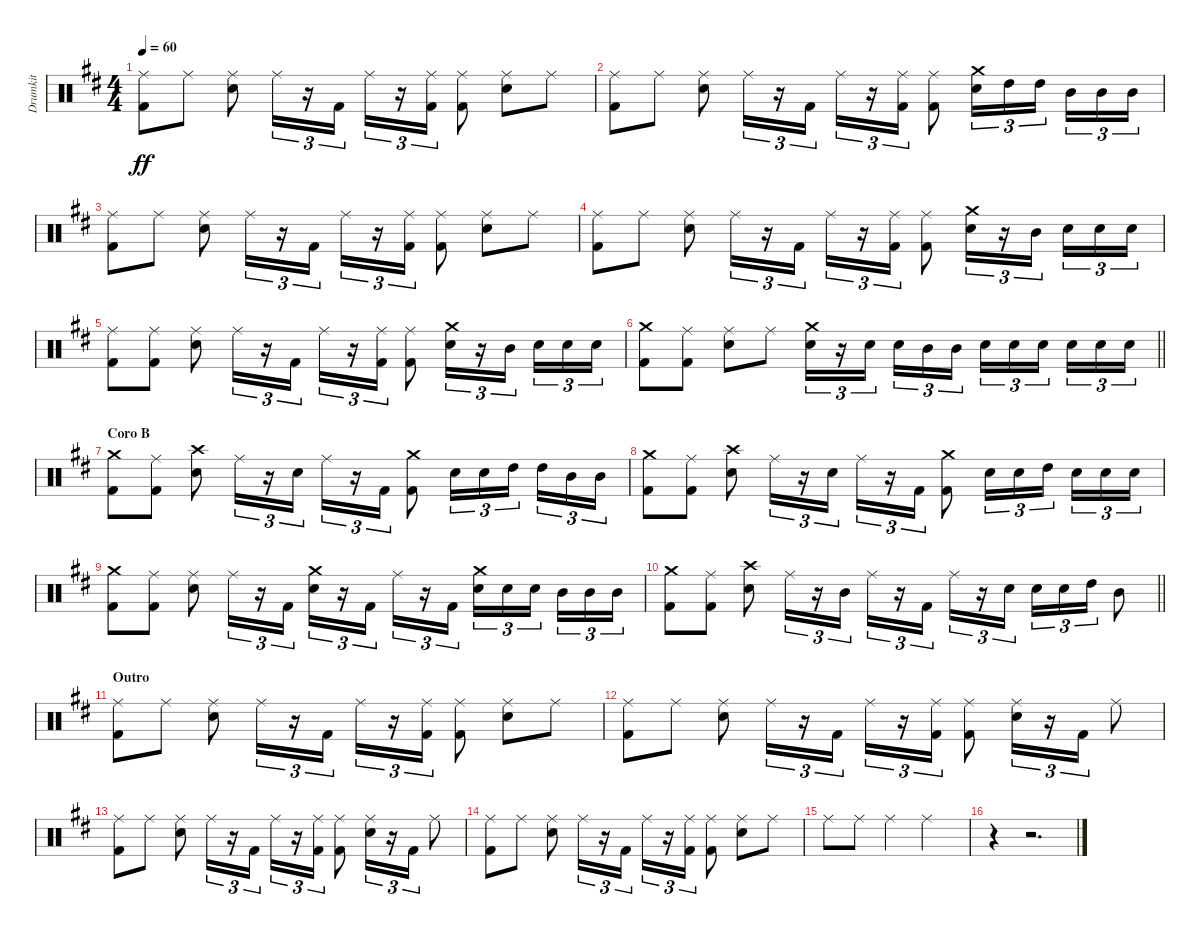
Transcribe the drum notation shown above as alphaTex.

\track ("Drumkit" "Drumkit") {instrument percussion}
\staff {score}
\articulation defaults
\ts (4 4)
\tempo 60
\clef neutral
\ks d
("Kick (hit) 2" "Ride (middle)").8{dy ff} "Ride (middle)".8 ("Snare (hit) 2" "Ride (middle)").8 "Ride (middle)".16{tu (3 2)} r.16{tu (3 2)} "Kick (hit) 2".16{tu (3 2)} "Ride (middle)".16{tu (3 2)} r.16{tu (3 2)} ("Kick (hit) 2" "Ride (middle)").16{tu (3 2)} ("Kick (hit) 2" "Ride (middle)").8 ("Snare (hit) 2" "Ride (middle)").8 "Ride (middle)".8 |
("Kick (hit) 2" "Ride (middle)").8 "Ride (middle)".8 ("Snare (hit) 2" "Ride (middle)").8 "Ride (middle)".16{tu (3 2)} r.16{tu (3 2)} "Kick (hit) 2".16{tu (3 2)} "Ride (middle)".16{tu (3 2)} r.16{tu (3 2)} ("Kick (hit) 2" "Ride (middle)").16{tu (3 2)} ("Kick (hit) 2" "Ride (middle)").8 ("Snare (hit) 2" "Crash medium (hit)").16{tu (3 2)} "High Tom (hit)".16{tu (3 2)} "High Tom (hit)".16{tu (3 2)} "Mid Tom (hit)".16{tu (3 2)} "Mid Tom (hit)".16{tu (3 2)} "Mid Tom (hit)".16{tu (3 2)} |
("Kick (hit) 2" "Ride (middle)").8 "Ride (middle)".8 ("Snare (hit) 2" "Ride (middle)").8 "Ride (middle)".16{tu (3 2)} r.16{tu (3 2)} "Kick (hit) 2".16{tu (3 2)} "Ride (middle)".16{tu (3 2)} r.16{tu (3 2)} ("Kick (hit) 2" "Ride (middle)").16{tu (3 2)} ("Kick (hit) 2" "Ride (middle)").8 ("Snare (hit) 2" "Ride (middle)").8 "Ride (middle)".8 |
("Kick (hit) 2" "Ride (middle)").8 "Ride (middle)".8 ("Snare (hit) 2" "Ride (middle)").8 "Ride (middle)".16{tu (3 2)} r.16{tu (3 2)} "Kick (hit) 2".16{tu (3 2)} "Ride (middle)".16{tu (3 2)} r.16{tu (3 2)} ("Kick (hit) 2" "Ride (middle)").16{tu (3 2)} ("Kick (hit) 2" "Ride (middle)").8 ("Snare (hit) 2" "Crash medium (hit)").16{tu (3 2)} r.16{tu (3 2)} "Mid Tom (hit)".16{tu (3 2)} "Snare (hit) 2".16{tu (3 2)} "Snare (hit) 2".16{tu (3 2)} "Snare (hit) 2".16{tu (3 2)} |
("Kick (hit) 2" "Ride (middle)").8 ("Kick (hit) 2" "Ride (middle)").8 ("Snare (hit) 2" "Ride (middle)").8 "Ride (middle)".16{tu (3 2)} r.16{tu (3 2)} "Kick (hit) 2".16{tu (3 2)} "Ride (middle)".16{tu (3 2)} r.16{tu (3 2)} ("Kick (hit) 2" "Ride (middle)").16{tu (3 2)} ("Kick (hit) 2" "Ride (middle)").8 ("Snare (hit) 2" "Crash medium (hit)").16{tu (3 2)} r.16{tu (3 2)} "Mid Tom (hit)".16{tu (3 2)} "Snare (hit) 2".16{tu (3 2)} "Snare (hit) 2".16{tu (3 2)} "Snare (hit) 2".16{tu (3 2)} |
\barLineRight lightlight
("Kick (hit) 2" "Crash medium (hit)").8 ("Kick (hit) 2" "Ride (middle)").8 ("Snare (hit) 2" "Ride (middle)").8 "Ride (middle)".8 ("Snare (hit) 2" "Crash medium (hit)").16{tu (3 2)} r.16{tu (3 2)} "Snare (hit) 2".16{tu (3 2)} "Snare (hit) 2".16{tu (3 2)} "Mid Tom (hit)".16{tu (3 2)} "Mid Tom (hit)".16{tu (3 2)} "Snare (hit) 2".16{tu (3 2)} "Snare (hit) 2".16{tu (3 2)} "Snare (hit) 2".16{tu (3 2)} "Snare (hit) 2".16{tu (3 2)} "Snare (hit) 2".16{tu (3 2)} "Snare (hit) 2".16{tu (3 2)} |
\section ("" "Coro B")
("Kick (hit) 2" "Crash medium (hit)").8 ("Kick (hit) 2" "Ride (middle)").8 ("Snare (hit) 2" "Crash high (hit)").8 "Ride (middle)".16{tu (3 2)} r.16{tu (3 2)} "Snare (hit) 2".16{tu (3 2)} "Ride (middle)".16{tu (3 2)} r.16{tu (3 2)} "Kick (hit) 2".16{tu (3 2)} ("Kick (hit) 2" "Crash medium (hit)").8 "Snare (hit) 2".16{tu (3 2)} "Snare (hit) 2".16{tu (3 2)} "High Tom (hit)".16{tu (3 2)} "High Tom (hit)".16{tu (3 2)} "Mid Tom (hit)".16{tu (3 2)} "Mid Tom (hit)".16{tu (3 2)} |
("Kick (hit) 2" "Crash medium (hit)").8 ("Kick (hit) 2" "Ride (middle)").8 ("Snare (hit) 2" "Crash high (hit)").8 "Ride (middle)".16{tu (3 2)} r.16{tu (3 2)} "Snare (hit) 2".16{tu (3 2)} "Ride (middle)".16{tu (3 2)} r.16{tu (3 2)} "Kick (hit) 2".16{tu (3 2)} ("Kick (hit) 2" "Crash medium (hit)").8 "Snare (hit) 2".16{tu (3 2)} "Snare (hit) 2".16{tu (3 2)} "High Tom (hit)".16{tu (3 2)} "Snare (hit) 2".16{tu (3 2)} "Snare (hit) 2".16{tu (3 2)} "Snare (hit) 2".16{tu (3 2)} |
("Kick (hit) 2" "Crash medium (hit)").8 ("Kick (hit) 2" "Ride (middle)").8 ("Snare (hit) 2" "Ride (middle)").8 "Ride (middle)".16{tu (3 2)} r.16{tu (3 2)} "Kick (hit) 2".16{tu (3 2)} ("Snare (hit) 2" "Crash medium (hit)").16{tu (3 2)} r.16{tu (3 2)} "Kick (hit) 2".16{tu (3 2)} "Ride (middle)".16{tu (3 2)} r.16{tu (3 2)} "Kick (hit) 2".16{tu (3 2)} ("Snare (hit) 2" "Crash medium (hit)").16{tu (3 2)} "Snare (hit) 2".16{tu (3 2)} "Snare (hit) 2".16{tu (3 2)} "Mid Tom (hit)".16{tu (3 2)} "Mid Tom (hit)".16{tu (3 2)} "Mid Tom (hit)".16{tu (3 2)} |
\barLineRight lightlight
("Kick (hit) 2" "Crash medium (hit)").8 ("Kick (hit) 2" "Ride (middle)").8 ("Snare (hit) 2" "Crash high (hit)").8 "Ride (middle)".16{tu (3 2)} r.16{tu (3 2)} "Mid Tom (hit)".16{tu (3 2)} "Ride (middle)".16{tu (3 2)} r.16{tu (3 2)} "Kick (hit) 2".16{tu (3 2)} "Ride (middle)".16{tu (3 2)} r.16{tu (3 2)} "Snare (hit) 2".16{tu (3 2)} "Snare (hit) 2".16{tu (3 2)} "Snare (hit) 2".16{tu (3 2)} "High Tom (hit)".16{tu (3 2)} "Mid Tom (hit)".8 |
\section ("" "Outro")
("Kick (hit) 2" "Ride (middle)").8 "Ride (middle)".8 ("Snare (hit) 2" "Ride (middle)").8 "Ride (middle)".16{tu (3 2)} r.16{tu (3 2)} "Kick (hit) 2".16{tu (3 2)} "Ride (middle)".16{tu (3 2)} r.16{tu (3 2)} ("Kick (hit) 2" "Ride (middle)").16{tu (3 2)} ("Kick (hit) 2" "Ride (middle)").8 ("Snare (hit) 2" "Ride (middle)").8 "Ride (middle)".8 |
("Kick (hit) 2" "Ride (middle)").8 "Ride (middle)".8 ("Snare (hit) 2" "Ride (middle)").8 "Ride (middle)".16{tu (3 2)} r.16{tu (3 2)} "Kick (hit) 2".16{tu (3 2)} "Ride (middle)".16{tu (3 2)} r.16{tu (3 2)} ("Kick (hit) 2" "Ride (middle)").16{tu (3 2)} ("Kick (hit) 2" "Ride (middle)").8 ("Snare (hit) 2" "Ride (middle)").16{tu (3 2)} r.16{tu (3 2)} "Kick (hit) 2".16{tu (3 2)} "Ride (middle)".8 |
("Kick (hit) 2" "Ride (middle)").8 "Ride (middle)".8 ("Snare (hit) 2" "Ride (middle)").8 "Ride (middle)".16{tu (3 2)} r.16{tu (3 2)} "Kick (hit) 2".16{tu (3 2)} "Ride (middle)".16{tu (3 2)} r.16{tu (3 2)} ("Kick (hit) 2" "Ride (middle)").16{tu (3 2)} ("Kick (hit) 2" "Ride (middle)").8 ("Snare (hit) 2" "Ride (middle)").16{tu (3 2)} r.16{tu (3 2)} "Kick (hit) 2".16{tu (3 2)} "Ride (middle)".8 |
("Kick (hit) 2" "Ride (middle)").8 "Ride (middle)".8 ("Snare (hit) 2" "Ride (middle)").8 "Ride (middle)".16{tu (3 2)} r.16{tu (3 2)} "Kick (hit) 2".16{tu (3 2)} "Ride (middle)".16{tu (3 2)} r.16{tu (3 2)} ("Kick (hit) 2" "Ride (middle)").16{tu (3 2)} ("Kick (hit) 2" "Ride (middle)").8 ("Snare (hit) 2" "Ride (middle)").8 "Ride (middle)".8 |
"Ride (middle)".8 "Ride (middle)".8 "Ride (middle)".4 "Ride (middle)".2 |
r.4 r.2{d}
